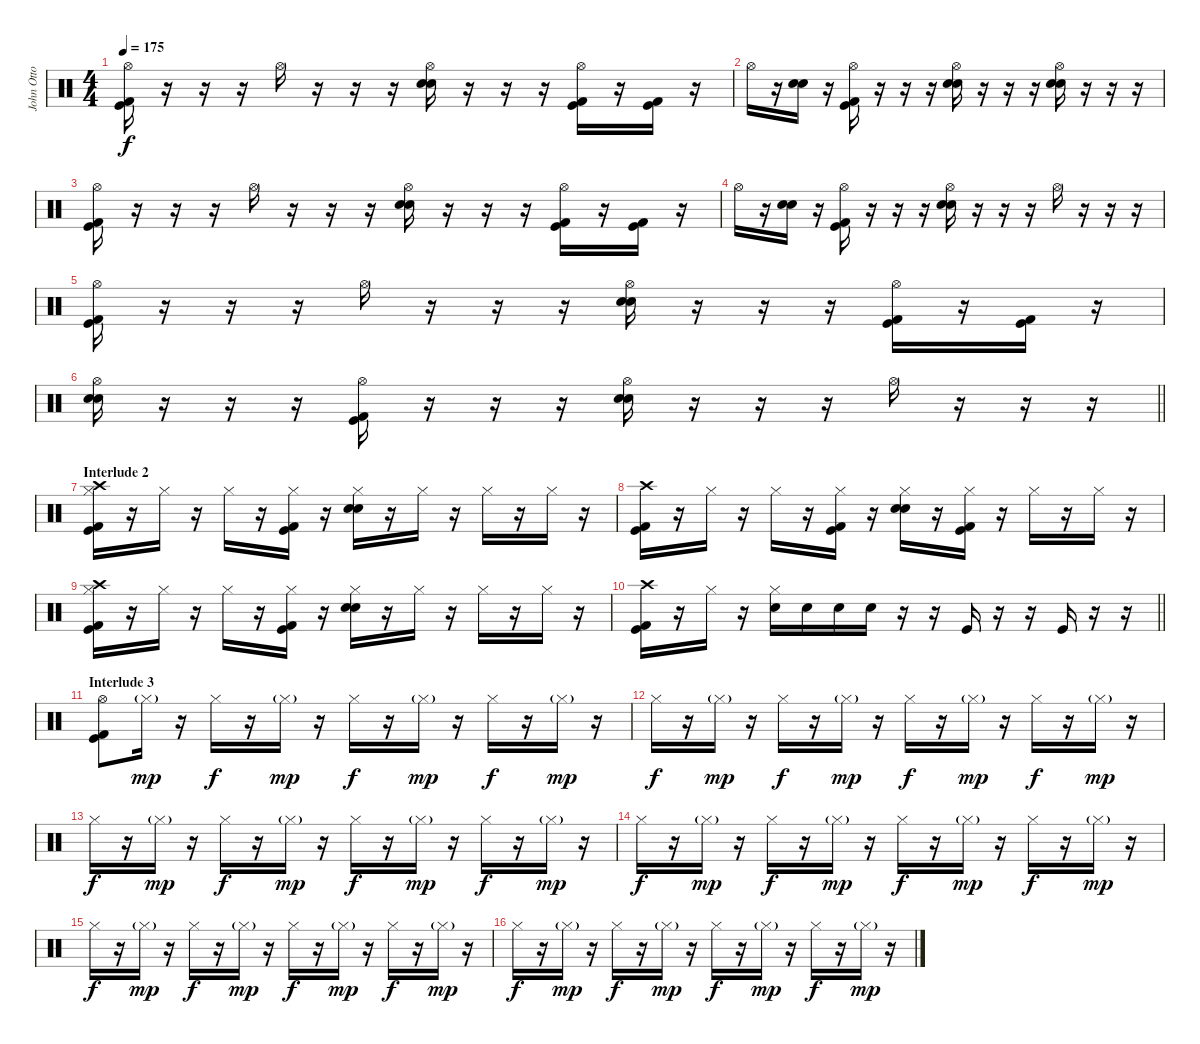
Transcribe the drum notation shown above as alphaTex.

\track ("John Otto" "John Otto") {instrument percussion}
\staff {score}
\articulation defaults
\ts (4 4)
\tempo 175
\clef neutral
\ks c
("Hi-Hat (open)" "Kick (hit) 2" "Kick (hit)").16{dy f} r.16 r.16 r.16 "Hi-Hat (open)".16 r.16 r.16 r.16 ("Hi-Hat (open)" "Electric Snare (hit)" "Snare (hit) 2").16 r.16 r.16 r.16 ("Hi-Hat (open)" "Kick (hit) 2" "Kick (hit)").16 r.16 ("Kick (hit) 2" "Kick (hit)").16 r.16 |
"Hi-Hat (open)".16 r.16 ("Electric Snare (hit)" "Snare (hit) 2").16 r.16 ("Hi-Hat (open)" "Kick (hit) 2" "Kick (hit)").16 r.16 r.16 r.16 ("Hi-Hat (open)" "Electric Snare (hit)" "Snare (hit) 2").16 r.16 r.16 r.16 ("Hi-Hat (open)" "Electric Snare (hit)" "Snare (hit) 2").16 r.16 r.16 r.16 |
("Hi-Hat (open)" "Kick (hit) 2" "Kick (hit)").16 r.16 r.16 r.16 "Hi-Hat (open)".16 r.16 r.16 r.16 ("Hi-Hat (open)" "Electric Snare (hit)" "Snare (hit) 2").16 r.16 r.16 r.16 ("Hi-Hat (open)" "Kick (hit) 2" "Kick (hit)").16 r.16 ("Kick (hit) 2" "Kick (hit)").16 r.16 |
"Hi-Hat (open)".16 r.16 ("Electric Snare (hit)" "Snare (hit) 2").16 r.16 ("Hi-Hat (open)" "Kick (hit) 2" "Kick (hit)").16 r.16 r.16 r.16 ("Hi-Hat (open)" "Electric Snare (hit)" "Snare (hit) 2").16 r.16 r.16 r.16 "Hi-Hat (open)".16 r.16 r.16 r.16 |
("Hi-Hat (open)" "Kick (hit) 2" "Kick (hit)").16 r.16 r.16 r.16 "Hi-Hat (open)".16 r.16 r.16 r.16 ("Hi-Hat (open)" "Electric Snare (hit)" "Snare (hit) 2").16 r.16 r.16 r.16 ("Hi-Hat (open)" "Kick (hit) 2" "Kick (hit)").16 r.16 ("Kick (hit) 2" "Kick (hit)").16 r.16 |
\barLineRight lightlight
("Hi-Hat (open)" "Electric Snare (hit)" "Snare (hit) 2").16 r.16 r.16 r.16 ("Hi-Hat (open)" "Kick (hit) 2" "Kick (hit)").16 r.16 r.16 r.16 ("Hi-Hat (open)" "Electric Snare (hit)" "Snare (hit) 2").16 r.16 r.16 r.16 "Hi-Hat (open)".16 r.16 r.16 r.16 |
\section ("" "Interlude 2")
("Crash high (hit)" "Hi-Hat (closed)" "Kick (hit) 2" "Kick (hit)").16 r.16 "Hi-Hat (closed)".16 r.16 "Hi-Hat (closed)".16 r.16 ("Hi-Hat (closed)" "Kick (hit) 2" "Kick (hit)").16 r.16 ("Hi-Hat (closed)" "Electric Snare (hit)" "Snare (hit) 2").16 r.16 "Hi-Hat (closed)".16 r.16 "Hi-Hat (closed)".16 r.16 "Hi-Hat (closed)".16 r.16 |
("Crash high (hit)" "Kick (hit) 2" "Kick (hit)").16 r.16 "Hi-Hat (closed)".16 r.16 "Hi-Hat (closed)".16 r.16 ("Hi-Hat (closed)" "Kick (hit) 2" "Kick (hit)").16 r.16 ("Hi-Hat (closed)" "Electric Snare (hit)" "Snare (hit) 2").16 r.16 ("Hi-Hat (closed)" "Kick (hit) 2" "Kick (hit)").16 r.16 "Hi-Hat (closed)".16 r.16 "Hi-Hat (closed)".16 r.16 |
("Crash high (hit)" "Hi-Hat (closed)" "Kick (hit) 2" "Kick (hit)").16 r.16 "Hi-Hat (closed)".16 r.16 "Hi-Hat (closed)".16 r.16 ("Hi-Hat (closed)" "Kick (hit) 2" "Kick (hit)").16 r.16 ("Hi-Hat (closed)" "Electric Snare (hit)" "Snare (hit) 2").16 r.16 "Hi-Hat (closed)".16 r.16 "Hi-Hat (closed)".16 r.16 "Hi-Hat (closed)".16 r.16 |
\barLineRight lightlight
("Crash high (hit)" "Kick (hit) 2" "Kick (hit)").16 r.16 "Hi-Hat (closed)".16 r.16 ("Hi-Hat (closed)" "Electric Snare (hit)").16 "Electric Snare (hit)".16 "Electric Snare (hit)".16 "Electric Snare (hit)".16 r.16 r.16 "Kick (hit)".16 r.16 r.16 "Kick (hit)".16 r.16 r.16 |
\section ("" "Interlude 3")
("Hi-Hat (open)" "Kick (hit) 2" "Kick (hit)").8 "Hi-Hat (closed)"{g}.16{dy mp} r.16 "Hi-Hat (closed)".16{dy f} r.16 "Hi-Hat (closed)"{g}.16{dy mp} r.16 "Hi-Hat (closed)".16{dy f} r.16 "Hi-Hat (closed)"{g}.16{dy mp} r.16 "Hi-Hat (closed)".16{dy f} r.16 "Hi-Hat (closed)"{g}.16{dy mp} r.16 |
"Hi-Hat (closed)".16{dy f} r.16 "Hi-Hat (closed)"{g}.16{dy mp} r.16 "Hi-Hat (closed)".16{dy f} r.16 "Hi-Hat (closed)"{g}.16{dy mp} r.16 "Hi-Hat (closed)".16{dy f} r.16 "Hi-Hat (closed)"{g}.16{dy mp} r.16 "Hi-Hat (closed)".16{dy f} r.16 "Hi-Hat (closed)"{g}.16{dy mp} r.16 |
"Hi-Hat (closed)".16{dy f} r.16 "Hi-Hat (closed)"{g}.16{dy mp} r.16 "Hi-Hat (closed)".16{dy f} r.16 "Hi-Hat (closed)"{g}.16{dy mp} r.16 "Hi-Hat (closed)".16{dy f} r.16 "Hi-Hat (closed)"{g}.16{dy mp} r.16 "Hi-Hat (closed)".16{dy f} r.16 "Hi-Hat (closed)"{g}.16{dy mp} r.16 |
"Hi-Hat (closed)".16{dy f} r.16 "Hi-Hat (closed)"{g}.16{dy mp} r.16 "Hi-Hat (closed)".16{dy f} r.16 "Hi-Hat (closed)"{g}.16{dy mp} r.16 "Hi-Hat (closed)".16{dy f} r.16 "Hi-Hat (closed)"{g}.16{dy mp} r.16 "Hi-Hat (closed)".16{dy f} r.16 "Hi-Hat (closed)"{g}.16{dy mp} r.16 |
"Hi-Hat (closed)".16{dy f} r.16 "Hi-Hat (closed)"{g}.16{dy mp} r.16 "Hi-Hat (closed)".16{dy f} r.16 "Hi-Hat (closed)"{g}.16{dy mp} r.16 "Hi-Hat (closed)".16{dy f} r.16 "Hi-Hat (closed)"{g}.16{dy mp} r.16 "Hi-Hat (closed)".16{dy f} r.16 "Hi-Hat (closed)"{g}.16{dy mp} r.16 |
"Hi-Hat (closed)".16{dy f} r.16 "Hi-Hat (closed)"{g}.16{dy mp} r.16 "Hi-Hat (closed)".16{dy f} r.16 "Hi-Hat (closed)"{g}.16{dy mp} r.16 "Hi-Hat (closed)".16{dy f} r.16 "Hi-Hat (closed)"{g}.16{dy mp} r.16 "Hi-Hat (closed)".16{dy f} r.16 "Hi-Hat (closed)"{g}.16{dy mp} r.16
